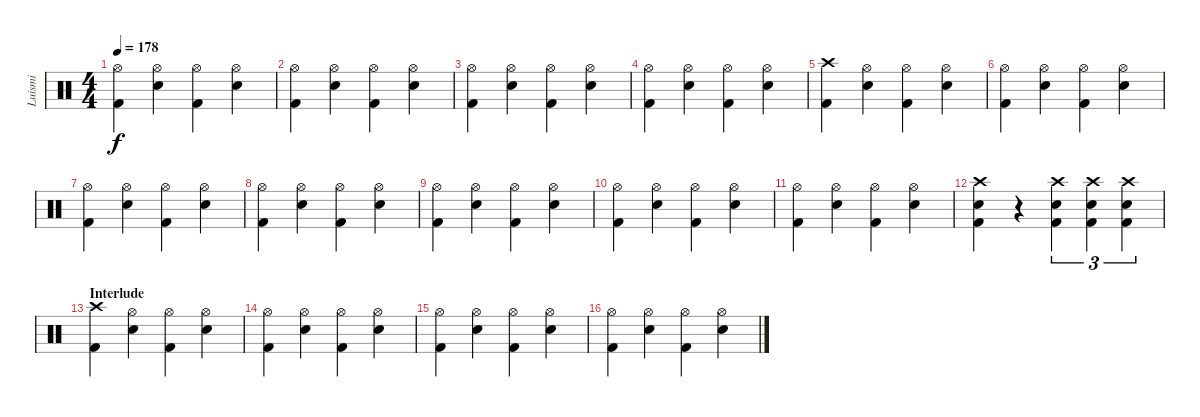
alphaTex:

\track ("Luismi" "Luismi") {instrument percussion}
\staff {score}
\articulation defaults
\ts (4 4)
\tempo 178
\clef neutral
\ks c
("Hi-Hat (open)" "Kick (hit) 2").4{dy f} ("Hi-Hat (open)" "Snare (hit) 2").4 ("Hi-Hat (open)" "Kick (hit) 2").4 ("Hi-Hat (open)" "Snare (hit) 2").4 |
("Hi-Hat (open)" "Kick (hit) 2").4 ("Hi-Hat (open)" "Snare (hit) 2").4 ("Hi-Hat (open)" "Kick (hit) 2").4 ("Hi-Hat (open)" "Snare (hit) 2").4 |
("Hi-Hat (open)" "Kick (hit) 2").4 ("Hi-Hat (open)" "Snare (hit) 2").4 ("Hi-Hat (open)" "Kick (hit) 2").4 ("Hi-Hat (open)" "Snare (hit) 2").4 |
("Hi-Hat (open)" "Kick (hit) 2").4 ("Hi-Hat (open)" "Snare (hit) 2").4 ("Hi-Hat (open)" "Kick (hit) 2").4 ("Hi-Hat (open)" "Snare (hit) 2").4 |
("Crash high (hit)" "Kick (hit) 2").4 ("Hi-Hat (open)" "Snare (hit) 2").4 ("Hi-Hat (open)" "Kick (hit) 2").4 ("Hi-Hat (open)" "Snare (hit) 2").4 |
("Hi-Hat (open)" "Kick (hit) 2").4 ("Hi-Hat (open)" "Snare (hit) 2").4 ("Hi-Hat (open)" "Kick (hit) 2").4 ("Hi-Hat (open)" "Snare (hit) 2").4 |
("Hi-Hat (open)" "Kick (hit) 2").4 ("Hi-Hat (open)" "Snare (hit) 2").4 ("Hi-Hat (open)" "Kick (hit) 2").4 ("Hi-Hat (open)" "Snare (hit) 2").4 |
("Hi-Hat (open)" "Kick (hit) 2").4 ("Hi-Hat (open)" "Snare (hit) 2").4 ("Hi-Hat (open)" "Kick (hit) 2").4 ("Hi-Hat (open)" "Snare (hit) 2").4 |
("Hi-Hat (open)" "Kick (hit) 2").4 ("Hi-Hat (open)" "Snare (hit) 2").4 ("Hi-Hat (open)" "Kick (hit) 2").4 ("Hi-Hat (open)" "Snare (hit) 2").4 |
("Hi-Hat (open)" "Kick (hit) 2").4 ("Hi-Hat (open)" "Snare (hit) 2").4 ("Hi-Hat (open)" "Kick (hit) 2").4 ("Hi-Hat (open)" "Snare (hit) 2").4 |
("Hi-Hat (open)" "Kick (hit) 2").4 ("Hi-Hat (open)" "Snare (hit) 2").4 ("Hi-Hat (open)" "Kick (hit) 2").4 ("Hi-Hat (open)" "Snare (hit) 2").4 |
("Crash high (hit)" "Snare (hit) 2" "Kick (hit) 2").4 r.4 ("Crash high (hit)" "Snare (hit) 2" "Kick (hit) 2").4{tu (3 2)} ("Crash high (hit)" "Snare (hit) 2" "Kick (hit) 2").4{tu (3 2)} ("Crash high (hit)" "Snare (hit) 2" "Kick (hit) 2").4{tu (3 2)} |
\section ("" "Interlude")
("Crash high (hit)" "Kick (hit) 2").4 ("Hi-Hat (open)" "Snare (hit) 2").4 ("Hi-Hat (open)" "Kick (hit) 2").4 ("Hi-Hat (open)" "Snare (hit) 2").4 |
("Hi-Hat (open)" "Kick (hit) 2").4 ("Hi-Hat (open)" "Snare (hit) 2").4 ("Hi-Hat (open)" "Kick (hit) 2").4 ("Hi-Hat (open)" "Snare (hit) 2").4 |
("Hi-Hat (open)" "Kick (hit) 2").4 ("Hi-Hat (open)" "Snare (hit) 2").4 ("Hi-Hat (open)" "Kick (hit) 2").4 ("Hi-Hat (open)" "Snare (hit) 2").4 |
("Hi-Hat (open)" "Kick (hit) 2").4 ("Hi-Hat (open)" "Snare (hit) 2").4 ("Hi-Hat (open)" "Kick (hit) 2").4 ("Hi-Hat (open)" "Snare (hit) 2").4
